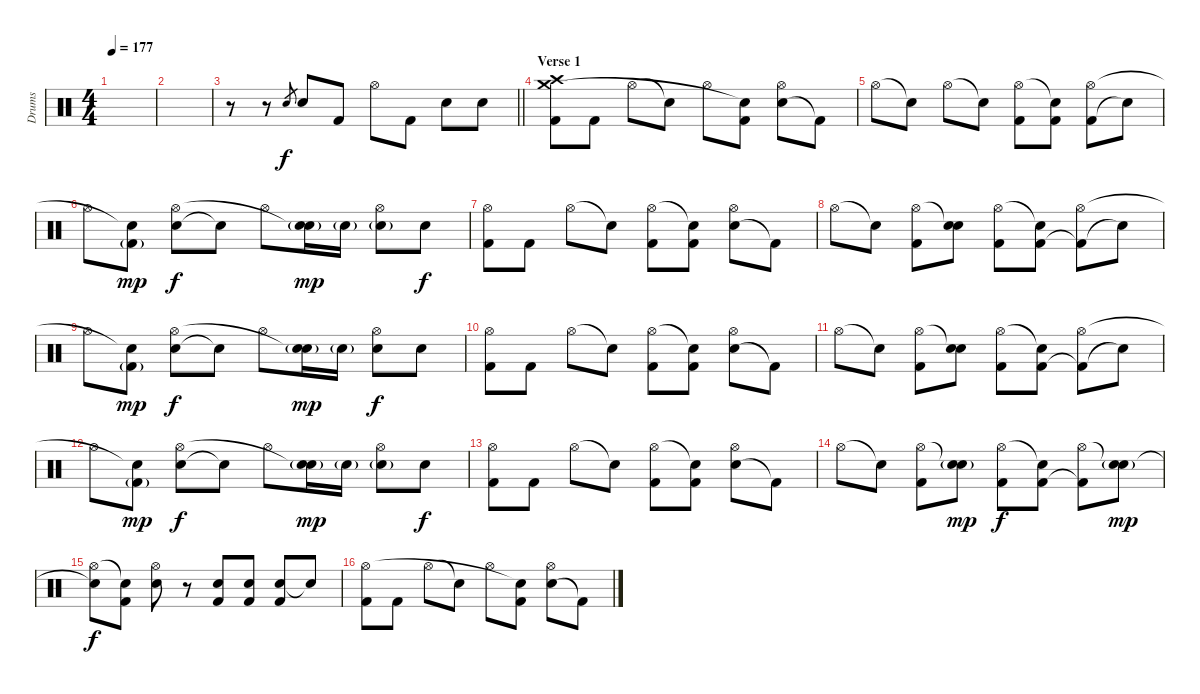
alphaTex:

\track ("Drums" "Drums") {instrument percussion}
\staff {score}
\articulation defaults
\ts (4 4)
\tempo 177
\clef neutral
\ks c
|
|
\barLineRight lightlight
r.8 r.8 "Electric Snare (hit)".8{gr} "Electric Snare (hit)".8 "Kick (hit) 2".8 "Hi-Hat (open)".8 "Kick (hit) 2".8 "Electric Snare (hit)".8 "Electric Snare (hit)".8 |
\section ("" "Verse 1")
("Kick (hit) 2" "Crash medium (hit)" "Crash high (hit)").8 "Kick (hit) 2".8 "Hi-Hat (open)".8 "Snare (hit)"{t}.8 "Hi-Hat (open)".8 ("Kick (hit) 2" "Snare (hit)"{t}).8 ("Electric Snare (hit)" "Hi-Hat (open)").8 "Kick (hit) 2"{t}.8 |
"Hi-Hat (open)".8 "Snare (hit)"{t}.8 "Hi-Hat (open)".8 "Snare (hit)"{t}.8 ("Kick (hit) 2" "Hi-Hat (open)").8 ("Kick (hit) 2" "Snare (hit)"{t}).8 ("Kick (hit) 2" "Hi-Hat (open)").8 "Snare (hit)"{t}.8 |
"Hi-Hat (open)".8 ("Kick (hit) 2"{g} "Snare (hit)"{t}).8{dy mp} ("Electric Snare (hit)" "Hi-Hat (open)").8{dy f} "Snare (hit)"{t}.8 "Hi-Hat (open)".8 ("Electric Snare (hit)"{g} "Snare (hit)"{t}).16{dy mp} "Electric Snare (hit)"{g}.16 ("Electric Snare (hit)"{g} "Hi-Hat (open)").8 "Electric Snare (hit)".8{dy f} |
("Kick (hit) 2" "Hi-Hat (open)").8 "Kick (hit) 2".8 "Hi-Hat (open)".8 "Snare (hit)"{t}.8 ("Kick (hit) 2" "Hi-Hat (open)").8 ("Kick (hit) 2" "Snare (hit)"{t}).8 ("Electric Snare (hit)" "Hi-Hat (open)").8 "Kick (hit) 2"{t}.8 |
"Hi-Hat (open)".8 "Snare (hit)"{t}.8 ("Kick (hit) 2" "Hi-Hat (open)").8 ("Electric Snare (hit)" "Snare (hit)"{t}).8 ("Kick (hit) 2" "Hi-Hat (open)").8 ("Kick (hit) 2" "Snare (hit)"{t}).8 ("Kick (hit) 2"{t} "Hi-Hat (open)").8 "Snare (hit)"{t}.8 |
"Hi-Hat (open)".8 ("Kick (hit) 2"{g} "Snare (hit)"{t}).8{dy mp} ("Electric Snare (hit)" "Hi-Hat (open)").8{dy f} "Snare (hit)"{t}.8 "Hi-Hat (open)".8 ("Electric Snare (hit)"{g} "Snare (hit)"{t}).16{dy mp} "Electric Snare (hit)"{g}.16 ("Electric Snare (hit)" "Hi-Hat (open)").8{dy f} "Electric Snare (hit)".8 |
("Kick (hit) 2" "Hi-Hat (open)").8 "Kick (hit) 2".8 "Hi-Hat (open)".8 "Snare (hit)"{t}.8 ("Kick (hit) 2" "Hi-Hat (open)").8 ("Kick (hit) 2" "Snare (hit)"{t}).8 ("Electric Snare (hit)" "Hi-Hat (open)").8 "Kick (hit) 2"{t}.8 |
"Hi-Hat (open)".8 "Snare (hit)"{t}.8 ("Kick (hit) 2" "Hi-Hat (open)").8 ("Electric Snare (hit)" "Snare (hit)"{t}).8 ("Kick (hit) 2" "Hi-Hat (open)").8 ("Kick (hit) 2" "Snare (hit)"{t}).8 ("Kick (hit) 2"{t} "Hi-Hat (open)").8 "Snare (hit)"{t}.8 |
"Hi-Hat (open)".8 ("Kick (hit) 2"{g} "Snare (hit)"{t}).8{dy mp} ("Electric Snare (hit)" "Hi-Hat (open)").8{dy f} "Snare (hit)"{t}.8 "Hi-Hat (open)".8 ("Electric Snare (hit)"{g} "Snare (hit)"{t}).16{dy mp} "Electric Snare (hit)"{g}.16 ("Electric Snare (hit)"{g} "Hi-Hat (open)").8 "Electric Snare (hit)".8{dy f} |
("Kick (hit) 2" "Hi-Hat (open)").8 "Kick (hit) 2".8 "Hi-Hat (open)".8 "Snare (hit)"{t}.8 ("Kick (hit) 2" "Hi-Hat (open)").8 ("Kick (hit) 2" "Snare (hit)"{t}).8 ("Electric Snare (hit)" "Hi-Hat (open)").8 "Kick (hit) 2"{t}.8 |
"Hi-Hat (open)".8 "Snare (hit)"{t}.8 ("Kick (hit) 2" "Hi-Hat (open)").8 ("Electric Snare (hit)"{g} "Snare (hit)"{t}).8{dy mp} ("Kick (hit) 2" "Hi-Hat (open)").8{dy f} ("Kick (hit) 2" "Snare (hit)"{t}).8 ("Kick (hit) 2"{t} "Hi-Hat (open)").8 ("Electric Snare (hit)"{g} "Snare (hit)"{t}).8{dy mp} |
("Electric Snare (hit)"{t} "Hi-Hat (open)").8{dy f} ("Kick (hit) 2" "Snare (hit)"{t}).8 ("Electric Snare (hit)" "Hi-Hat (open)").8 r.8 ("Electric Snare (hit)" "Kick (hit) 2").8 ("Electric Snare (hit)" "Kick (hit) 2").8 ("Electric Snare (hit)" "Kick (hit) 2").8 "Electric Snare (hit)"{t}.8 |
("Kick (hit) 2" "Hi-Hat (open)").8 "Kick (hit) 2".8 "Hi-Hat (open)".8 "Snare (hit)"{t}.8 "Hi-Hat (open)".8 ("Kick (hit) 2" "Snare (hit)"{t}).8 ("Electric Snare (hit)" "Hi-Hat (open)").8 "Kick (hit) 2"{t}.8
